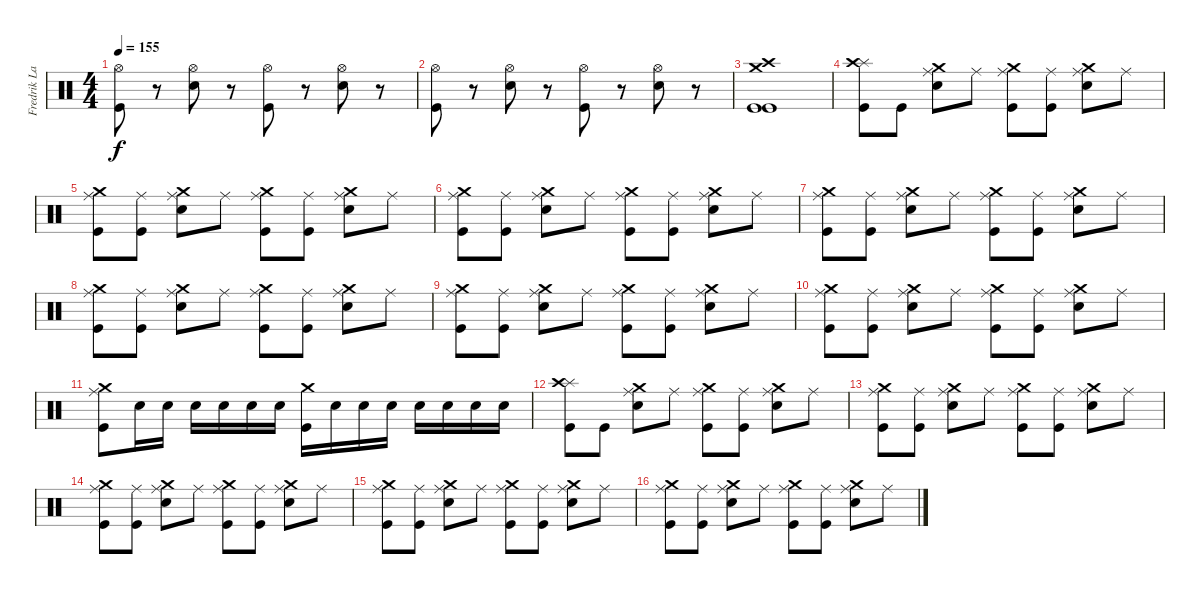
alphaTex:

\track ("Fredrik Larzon Drums" "Fredrik La") {instrument percussion}
\staff {score}
\articulation defaults
\ts (4 4)
\tempo 155
\clef neutral
\ks c
("Hi-Hat (open)" "Kick (hit)").8{dy f} r.8 ("Hi-Hat (open)" "Electric Snare (hit)").8 r.8 ("Hi-Hat (open)" "Kick (hit)").8 r.8 ("Hi-Hat (open)" "Electric Snare (hit)").8 r.8 |
("Hi-Hat (open)" "Kick (hit)").8 r.8 ("Hi-Hat (open)" "Electric Snare (hit)").8 r.8 ("Hi-Hat (open)" "Kick (hit)").8 r.8 ("Hi-Hat (open)" "Electric Snare (hit)").8 r.8 |
("Crash high (hit)" "Crash medium (hit)" "Kick (hit)" "Kick (hit)").1 |
("Splash (hit)" "Crash high (hit)" "Kick (hit)").8 "Kick (hit)".8 ("Ride (middle)" "Crash medium (hit)" "Electric Snare (hit)").8 "Ride (middle)".8 ("Ride (middle)" "Crash medium (hit)" "Kick (hit)").8 ("Ride (middle)" "Kick (hit)").8 ("Ride (middle)" "Crash medium (hit)" "Electric Snare (hit)").8 "Ride (middle)".8 |
("Ride (middle)" "Crash medium (hit)" "Kick (hit)").8 ("Ride (middle)" "Kick (hit)").8 ("Ride (middle)" "Crash medium (hit)" "Electric Snare (hit)").8 "Ride (middle)".8 ("Ride (middle)" "Crash medium (hit)" "Kick (hit)").8 ("Ride (middle)" "Kick (hit)").8 ("Ride (middle)" "Crash medium (hit)" "Electric Snare (hit)").8 "Ride (middle)".8 |
("Ride (middle)" "Crash medium (hit)" "Kick (hit)").8 ("Ride (middle)" "Kick (hit)").8 ("Ride (middle)" "Crash medium (hit)" "Electric Snare (hit)").8 "Ride (middle)".8 ("Ride (middle)" "Crash medium (hit)" "Kick (hit)").8 ("Ride (middle)" "Kick (hit)").8 ("Ride (middle)" "Crash medium (hit)" "Electric Snare (hit)").8 "Ride (middle)".8 |
("Ride (middle)" "Crash medium (hit)" "Kick (hit)").8 ("Ride (middle)" "Kick (hit)").8 ("Ride (middle)" "Crash medium (hit)" "Electric Snare (hit)").8 "Ride (middle)".8 ("Ride (middle)" "Crash medium (hit)" "Kick (hit)").8 ("Ride (middle)" "Kick (hit)").8 ("Ride (middle)" "Crash medium (hit)" "Electric Snare (hit)").8 "Ride (middle)".8 |
("Ride (middle)" "Crash medium (hit)" "Kick (hit)").8 ("Ride (middle)" "Kick (hit)").8 ("Ride (middle)" "Crash medium (hit)" "Electric Snare (hit)").8 "Ride (middle)".8 ("Ride (middle)" "Crash medium (hit)" "Kick (hit)").8 ("Ride (middle)" "Kick (hit)").8 ("Ride (middle)" "Crash medium (hit)" "Electric Snare (hit)").8 "Ride (middle)".8 |
("Ride (middle)" "Crash medium (hit)" "Kick (hit)").8 ("Ride (middle)" "Kick (hit)").8 ("Ride (middle)" "Crash medium (hit)" "Electric Snare (hit)").8 "Ride (middle)".8 ("Ride (middle)" "Crash medium (hit)" "Kick (hit)").8 ("Ride (middle)" "Kick (hit)").8 ("Ride (middle)" "Crash medium (hit)" "Electric Snare (hit)").8 "Ride (middle)".8 |
("Ride (middle)" "Crash medium (hit)" "Kick (hit)").8 ("Ride (middle)" "Kick (hit)").8 ("Ride (middle)" "Crash medium (hit)" "Electric Snare (hit)").8 "Ride (middle)".8 ("Ride (middle)" "Crash medium (hit)" "Kick (hit)").8 ("Ride (middle)" "Kick (hit)").8 ("Ride (middle)" "Crash medium (hit)" "Electric Snare (hit)").8 "Ride (middle)".8 |
("Ride (middle)" "Crash medium (hit)" "Kick (hit)").8 "Electric Snare (hit)".16 "Electric Snare (hit)".16 "Electric Snare (hit)".16 "Electric Snare (hit)".16 "Electric Snare (hit)".16 "Electric Snare (hit)".16 ("Crash medium (hit)" "Kick (hit)").16 "Electric Snare (hit)".16 "Electric Snare (hit)".16 "Electric Snare (hit)".16 "Electric Snare (hit)".16 "Electric Snare (hit)".16 "Electric Snare (hit)".16 "Electric Snare (hit)".16 |
("Splash (hit)" "Crash high (hit)" "Kick (hit)").8 "Kick (hit)".8 ("Ride (middle)" "Crash medium (hit)" "Electric Snare (hit)").8 "Ride (middle)".8 ("Ride (middle)" "Crash medium (hit)" "Kick (hit)").8 ("Ride (middle)" "Kick (hit)").8 ("Ride (middle)" "Crash medium (hit)" "Electric Snare (hit)").8 "Ride (middle)".8 |
("Ride (middle)" "Crash medium (hit)" "Kick (hit)").8 ("Ride (middle)" "Kick (hit)").8 ("Ride (middle)" "Crash medium (hit)" "Electric Snare (hit)").8 "Ride (middle)".8 ("Ride (middle)" "Crash medium (hit)" "Kick (hit)").8 ("Ride (middle)" "Kick (hit)").8 ("Ride (middle)" "Crash medium (hit)" "Electric Snare (hit)").8 "Ride (middle)".8 |
("Ride (middle)" "Crash medium (hit)" "Kick (hit)").8 ("Ride (middle)" "Kick (hit)").8 ("Ride (middle)" "Crash medium (hit)" "Electric Snare (hit)").8 "Ride (middle)".8 ("Ride (middle)" "Crash medium (hit)" "Kick (hit)").8 ("Ride (middle)" "Kick (hit)").8 ("Ride (middle)" "Crash medium (hit)" "Electric Snare (hit)").8 "Ride (middle)".8 |
("Ride (middle)" "Crash medium (hit)" "Kick (hit)").8 ("Ride (middle)" "Kick (hit)").8 ("Ride (middle)" "Crash medium (hit)" "Electric Snare (hit)").8 "Ride (middle)".8 ("Ride (middle)" "Crash medium (hit)" "Kick (hit)").8 ("Ride (middle)" "Kick (hit)").8 ("Ride (middle)" "Crash medium (hit)" "Electric Snare (hit)").8 "Ride (middle)".8 |
("Ride (middle)" "Crash medium (hit)" "Kick (hit)").8 ("Ride (middle)" "Kick (hit)").8 ("Ride (middle)" "Crash medium (hit)" "Electric Snare (hit)").8 "Ride (middle)".8 ("Ride (middle)" "Crash medium (hit)" "Kick (hit)").8 ("Ride (middle)" "Kick (hit)").8 ("Ride (middle)" "Crash medium (hit)" "Electric Snare (hit)").8 "Ride (middle)".8
